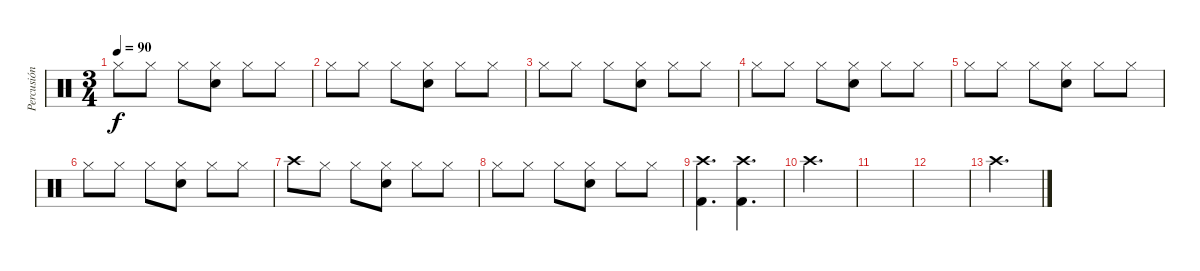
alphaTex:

\track ("Percusión" "Percusión") {instrument percussion}
\staff {score}
\articulation defaults
\ts (3 4)
\tempo 90
\clef neutral
\ks c "Hi-Hat (closed)".8{dy f} "Hi-Hat (closed)".8 "Hi-Hat (closed)".8
("Electric Snare (hit)" "Hi-Hat (closed)").8 "Hi-Hat (closed)".8 "Hi-Hat (closed)".8 |
"Hi-Hat (closed)".8 "Hi-Hat (closed)".8 "Hi-Hat (closed)".8 ("Electric Snare (hit)" "Hi-Hat (closed)").8 "Hi-Hat (closed)".8 "Hi-Hat (closed)".8 |
"Hi-Hat (closed)".8 "Hi-Hat (closed)".8 "Hi-Hat (closed)".8 ("Electric Snare (hit)" "Hi-Hat (closed)").8 "Hi-Hat (closed)".8 "Hi-Hat (closed)".8 |
"Hi-Hat (closed)".8 "Hi-Hat (closed)".8 "Hi-Hat (closed)".8 ("Electric Snare (hit)" "Hi-Hat (closed)").8 "Hi-Hat (closed)".8 "Hi-Hat (closed)".8 |
"Hi-Hat (closed)".8 "Hi-Hat (closed)".8 "Hi-Hat (closed)".8 ("Electric Snare (hit)" "Hi-Hat (closed)").8 "Hi-Hat (closed)".8 "Hi-Hat (closed)".8 |
"Hi-Hat (closed)".8 "Hi-Hat (closed)".8 "Hi-Hat (closed)".8 ("Electric Snare (hit)" "Hi-Hat (closed)").8 "Hi-Hat (closed)".8 "Hi-Hat (closed)".8 |
"Crash high (hit)".8 "Hi-Hat (closed)".8 "Hi-Hat (closed)".8 ("Electric Snare (hit)" "Hi-Hat (closed)").8 "Hi-Hat (closed)".8 "Hi-Hat (closed)".8 |
"Hi-Hat (closed)".8 "Hi-Hat (closed)".8 "Hi-Hat (closed)".8 ("Electric Snare (hit)" "Hi-Hat (closed)").8 "Hi-Hat (closed)".8 "Hi-Hat (closed)".8 |
("Crash high (hit)" "Kick (hit) 2").4{d} ("Crash high (hit)" "Kick (hit) 2").4{d} |
"Crash high (hit)".2{d} |
|
|
"Crash high (hit)".2{d}
